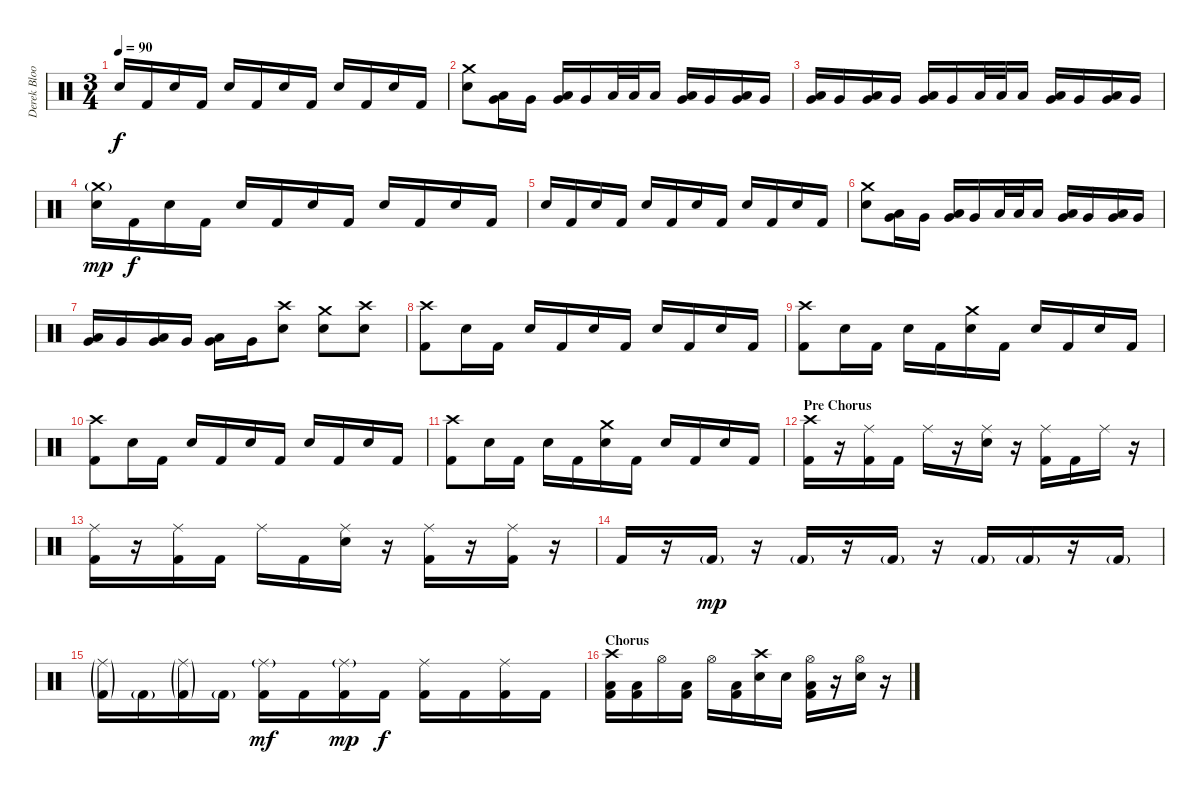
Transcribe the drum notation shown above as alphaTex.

\track ("Derek Bloom (Drums)" "Derek Bloo") {instrument percussion}
\staff {score}
\articulation defaults
\ts (3 4)
\tempo 90
\clef neutral
\ks c "Electric Snare (hit)".16{dy f} "Kick (hit) 2".16 "Electric Snare (hit)".16 "Kick (hit) 2".16 "Electric Snare (hit)".16 "Kick (hit) 2".16 "Electric Snare (hit)".16 "Kick (hit) 2".16 "Electric Snare (hit)".16 "Kick (hit) 2".16 "Electric Snare (hit)".16 "Kick (hit) 2".16
|
("Crash medium (hit)" "Electric Snare (hit)").8 ("Low Tom (hit)" "Very Low Tom (hit)").16 "Very Low Tom (hit)".16 ("Low Tom (hit)" "Very Low Tom (hit)").16 "Very Low Tom (hit)".16 "Low Tom (hit)".32 "Low Tom (hit)".32 "Low Tom (hit)".16 ("Low Tom (hit)" "Very Low Tom (hit)").16 "Very Low Tom (hit)".16 ("Low Tom (hit)" "Very Low Tom (hit)").16 "Very Low Tom (hit)".16 |
("Low Tom (hit)" "Very Low Tom (hit)").16 "Very Low Tom (hit)".16 ("Low Tom (hit)" "Very Low Tom (hit)").16 "Very Low Tom (hit)".16 ("Low Tom (hit)" "Very Low Tom (hit)").16 "Very Low Tom (hit)".16 "Low Tom (hit)".32 "Low Tom (hit)".32 "Low Tom (hit)".16 ("Low Tom (hit)" "Very Low Tom (hit)").16 "Very Low Tom (hit)".16 ("Low Tom (hit)" "Very Low Tom (hit)").16 "Very Low Tom (hit)".16 |
("Crash medium (hit)"{g} "Electric Snare (hit)").16{dy mp} "Kick (hit) 2".16{dy f} "Electric Snare (hit)".16 "Kick (hit) 2".16 "Electric Snare (hit)".16 "Kick (hit) 2".16 "Electric Snare (hit)".16 "Kick (hit) 2".16 "Electric Snare (hit)".16 "Kick (hit) 2".16 "Electric Snare (hit)".16 "Kick (hit) 2".16 |
"Electric Snare (hit)".16 "Kick (hit) 2".16 "Electric Snare (hit)".16 "Kick (hit) 2".16 "Electric Snare (hit)".16 "Kick (hit) 2".16 "Electric Snare (hit)".16 "Kick (hit) 2".16 "Electric Snare (hit)".16 "Kick (hit) 2".16 "Electric Snare (hit)".16 "Kick (hit) 2".16 |
("Crash medium (hit)" "Electric Snare (hit)").8 ("Low Tom (hit)" "Very Low Tom (hit)").16 "Very Low Tom (hit)".16 ("Low Tom (hit)" "Very Low Tom (hit)").16 "Very Low Tom (hit)".16 "Low Tom (hit)".32 "Low Tom (hit)".32 "Low Tom (hit)".16 ("Low Tom (hit)" "Very Low Tom (hit)").16 "Very Low Tom (hit)".16 ("Low Tom (hit)" "Very Low Tom (hit)").16 "Very Low Tom (hit)".16 |
("Low Tom (hit)" "Very Low Tom (hit)").16 "Very Low Tom (hit)".16 ("Low Tom (hit)" "Very Low Tom (hit)").16 "Very Low Tom (hit)".16 ("Low Tom (hit)" "Very Low Tom (hit)").16 "Very Low Tom (hit)".16 ("Crash high (hit)" "Electric Snare (hit)").8 ("Crash medium (hit)" "Electric Snare (hit)").8 ("Crash high (hit)" "Electric Snare (hit)").8 |
("Crash high (hit)" "Kick (hit) 2").8 "Electric Snare (hit)".16 "Kick (hit) 2".16 "Electric Snare (hit)".16 "Kick (hit) 2".16 "Electric Snare (hit)".16 "Kick (hit) 2".16 "Electric Snare (hit)".16 "Kick (hit) 2".16 "Electric Snare (hit)".16 "Kick (hit) 2".16 |
("Crash high (hit)" "Kick (hit) 2").8 "Electric Snare (hit)".16 "Kick (hit) 2".16 "Electric Snare (hit)".16 "Kick (hit) 2".16 ("Crash medium (hit)" "Electric Snare (hit)").16 "Kick (hit) 2".16 "Electric Snare (hit)".16 "Kick (hit) 2".16 "Electric Snare (hit)".16 "Kick (hit) 2".16 |
("Crash high (hit)" "Kick (hit) 2").8 "Electric Snare (hit)".16 "Kick (hit) 2".16 "Electric Snare (hit)".16 "Kick (hit) 2".16 "Electric Snare (hit)".16 "Kick (hit) 2".16 "Electric Snare (hit)".16 "Kick (hit) 2".16 "Electric Snare (hit)".16 "Kick (hit) 2".16 |
("Crash high (hit)" "Kick (hit) 2").8 "Electric Snare (hit)".16 "Kick (hit) 2".16 "Electric Snare (hit)".16 "Kick (hit) 2".16 ("Crash medium (hit)" "Electric Snare (hit)").16 "Kick (hit) 2".16 "Electric Snare (hit)".16 "Kick (hit) 2".16 "Electric Snare (hit)".16 "Kick (hit) 2".16 |
\section ("" "Pre Chorus")
("Crash high (hit)" "Kick (hit) 2").16 r.16 ("Ride (middle)" "Kick (hit) 2").16 "Kick (hit) 2".16 "Ride (middle)".16 r.16 ("Ride (middle)" "Electric Snare (hit)").16 r.16 ("Ride (middle)" "Kick (hit) 2").16 "Kick (hit) 2".16 "Ride (middle)".16 r.16 |
("Ride (middle)" "Kick (hit) 2").16 r.16 ("Ride (middle)" "Kick (hit) 2").16 "Kick (hit) 2".16 "Ride (middle)".16 "Kick (hit) 2".16 ("Ride (middle)" "Electric Snare (hit)").16 r.16 ("Ride (middle)" "Kick (hit) 2").16 r.16 ("Ride (middle)" "Kick (hit) 2").16 r.16 |
"Kick (hit) 2".16 r.16 "Kick (hit) 2"{g}.16{dy mp} r.16 "Kick (hit) 2"{g}.16 r.16 "Kick (hit) 2"{g}.16 r.16 "Kick (hit) 2"{g}.16 "Kick (hit) 2"{g}.16 r.16 "Kick (hit) 2"{g}.16 |
("Ride (middle)"{g} "Kick (hit) 2"{g}).16 "Kick (hit) 2"{g}.16 ("Ride (middle)"{g} "Kick (hit) 2"{g}).16 "Kick (hit) 2"{g}.16 ("Ride (middle)"{g} "Kick (hit) 2").16{dy mf} "Kick (hit) 2".16 ("Ride (middle)"{g} "Kick (hit) 2").16{dy mp} "Kick (hit) 2".16{dy f} ("Ride (middle)" "Kick (hit) 2").16 "Kick (hit) 2".16 ("Ride (middle)" "Kick (hit) 2").16 "Kick (hit) 2".16 |
\section ("" "Chorus")
("Crash high (hit)" "Low Floor Tom (hit)" "Kick (hit) 2").16 ("Low Floor Tom (hit)" "Kick (hit) 2").16 "Hi-Hat (open)".16 ("Low Floor Tom (hit)" "Kick (hit) 2").16 "Hi-Hat (open)".16 ("Low Floor Tom (hit)" "Kick (hit) 2").16 ("Crash high (hit)" "Electric Snare (hit)").16 "Electric Snare (hit)".16 ("Hi-Hat (open)" "Low Floor Tom (hit)" "Kick (hit) 2").16 r.16 ("Hi-Hat (open)" "Electric Snare (hit)").16 r.16
